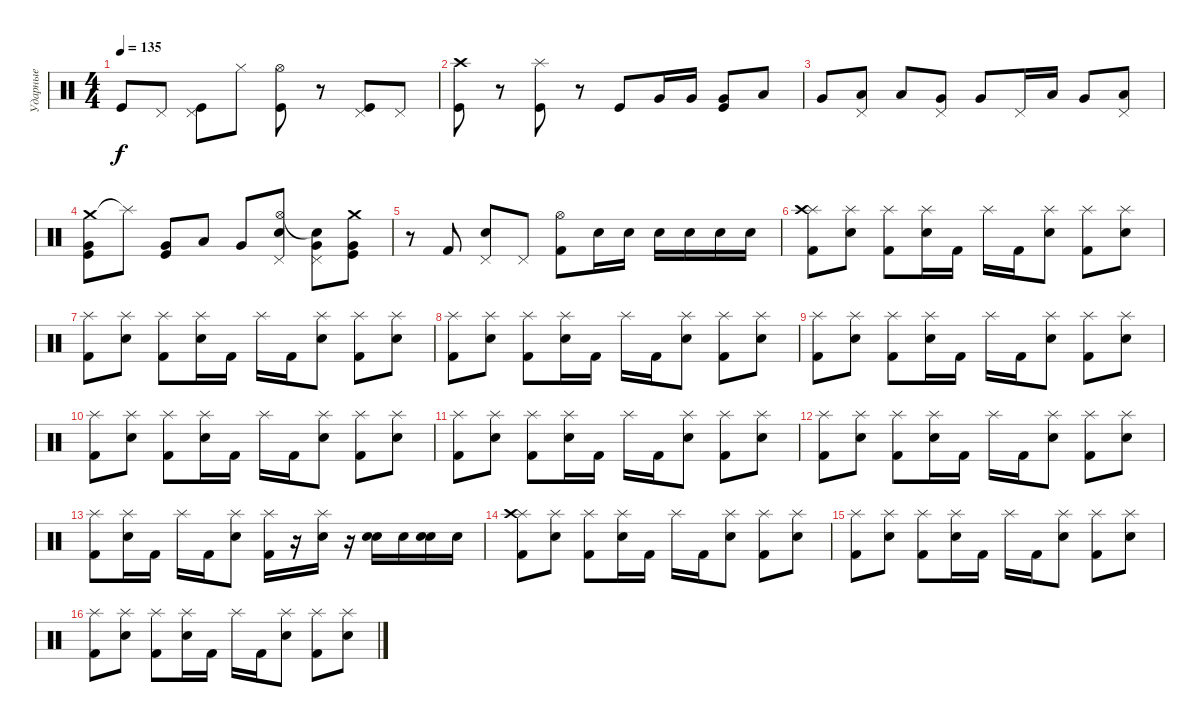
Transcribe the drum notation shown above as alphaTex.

\track ("Ударные" "Ударные") {instrument percussion}
\staff {score}
\articulation defaults
\ts (4 4)
\tempo 135
\clef neutral
\ks c "Kick (hit)".8{dy f} "Pedal Hi-Hat (hit)".8
("Pedal Hi-Hat (hit)" "Kick (hit)").8 "Hi-Hat (closed)".8 ("Hi-Hat (open)" "Kick (hit)").8 r.8 ("Pedal Hi-Hat (hit)" "Kick (hit)").8 "Pedal Hi-Hat (hit)".8 |
("Crash high (hit)" "Kick (hit)").8 r.8 ("Splash (hit)" "Kick (hit)").8 r.8 "Kick (hit)".8 "Very Low Tom (hit)".16 "Very Low Tom (hit)".16 ("Very Low Tom (hit)" "Kick (hit)").8 "Low Tom (hit)".8 |
"Very Low Tom (hit)".8 ("Pedal Hi-Hat (hit)" "Low Tom (hit)").8 "Low Tom (hit)".8 ("Pedal Hi-Hat (hit)" "Very Low Tom (hit)").8 "Very Low Tom (hit)".8 "Pedal Hi-Hat (hit)".16 "Low Tom (hit)".16 "Very Low Tom (hit)".8 ("Pedal Hi-Hat (hit)" "Low Floor Tom (hit)").8 |
("Crash medium (hit)" "Very Low Tom (hit)" "Kick (hit)").8 "Splash (hit)"{t}.8 ("Very Low Tom (hit)" "Kick (hit)").8 "Low Floor Tom (hit)".8 "Very Low Tom (hit)".8 ("Pedal Hi-Hat (hit)" "Electric Snare (hit)" "Hi-Hat (open)").8 ("Pedal Hi-Hat (hit)" "Very Low Tom (hit)" "Snare (hit)"{t}).8 ("Crash medium (hit)" "Very Low Tom (hit)" "Kick (hit)").8 |
r.8 "Kick (hit) 2".8 ("Pedal Hi-Hat (hit)" "Electric Snare (hit)").8 "Pedal Hi-Hat (hit)".8 ("Hi-Hat (open)" "Kick (hit) 2").8 "Electric Snare (hit)".16 "Electric Snare (hit)".16 "Electric Snare (hit)".16 "Electric Snare (hit)".16 "Electric Snare (hit)".16 "Electric Snare (hit)".16 |
("Splash (hit)" "Crash high (hit)" "Kick (hit) 2").8 ("Splash (hit)" "Electric Snare (hit)").8 ("Splash (hit)" "Kick (hit) 2").8 ("Splash (hit)" "Electric Snare (hit)").16 "Kick (hit) 2".16 "Splash (hit)".16 "Kick (hit) 2".16 ("Splash (hit)" "Electric Snare (hit)").8 ("Splash (hit)" "Kick (hit) 2").8 ("Splash (hit)" "Electric Snare (hit)").8 |
("Splash (hit)" "Kick (hit) 2").8 ("Splash (hit)" "Electric Snare (hit)").8 ("Splash (hit)" "Kick (hit) 2").8 ("Splash (hit)" "Electric Snare (hit)").16 "Kick (hit) 2".16 "Splash (hit)".16 "Kick (hit) 2".16 ("Splash (hit)" "Electric Snare (hit)").8 ("Splash (hit)" "Kick (hit) 2").8 ("Splash (hit)" "Electric Snare (hit)").8 |
("Splash (hit)" "Kick (hit) 2").8 ("Splash (hit)" "Electric Snare (hit)").8 ("Splash (hit)" "Kick (hit) 2").8 ("Splash (hit)" "Electric Snare (hit)").16 "Kick (hit) 2".16 "Splash (hit)".16 "Kick (hit) 2".16 ("Splash (hit)" "Electric Snare (hit)").8 ("Splash (hit)" "Kick (hit) 2").8 ("Splash (hit)" "Electric Snare (hit)").8 |
("Splash (hit)" "Kick (hit) 2").8 ("Splash (hit)" "Electric Snare (hit)").8 ("Splash (hit)" "Kick (hit) 2").8 ("Splash (hit)" "Electric Snare (hit)").16 "Kick (hit) 2".16 "Splash (hit)".16 "Kick (hit) 2".16 ("Splash (hit)" "Electric Snare (hit)").8 ("Splash (hit)" "Kick (hit) 2").8 ("Splash (hit)" "Electric Snare (hit)").8 |
("Splash (hit)" "Kick (hit) 2").8 ("Splash (hit)" "Electric Snare (hit)").8 ("Splash (hit)" "Kick (hit) 2").8 ("Splash (hit)" "Electric Snare (hit)").16 "Kick (hit) 2".16 "Splash (hit)".16 "Kick (hit) 2".16 ("Splash (hit)" "Electric Snare (hit)").8 ("Splash (hit)" "Kick (hit) 2").8 ("Splash (hit)" "Electric Snare (hit)").8 |
("Splash (hit)" "Kick (hit) 2").8 ("Splash (hit)" "Electric Snare (hit)").8 ("Splash (hit)" "Kick (hit) 2").8 ("Splash (hit)" "Electric Snare (hit)").16 "Kick (hit) 2".16 "Splash (hit)".16 "Kick (hit) 2".16 ("Splash (hit)" "Electric Snare (hit)").8 ("Splash (hit)" "Kick (hit) 2").8 ("Splash (hit)" "Electric Snare (hit)").8 |
("Splash (hit)" "Kick (hit) 2").8 ("Splash (hit)" "Electric Snare (hit)").8 ("Splash (hit)" "Kick (hit) 2").8 ("Splash (hit)" "Electric Snare (hit)").16 "Kick (hit) 2".16 "Splash (hit)".16 "Kick (hit) 2".16 ("Splash (hit)" "Electric Snare (hit)").8 ("Splash (hit)" "Kick (hit) 2").8 ("Splash (hit)" "Electric Snare (hit)").8 |
("Splash (hit)" "Kick (hit) 2").8 ("Splash (hit)" "Electric Snare (hit)").16 "Kick (hit) 2".16 "Splash (hit)".16 "Kick (hit) 2".16 ("Splash (hit)" "Electric Snare (hit)").8 ("Splash (hit)" "Kick (hit) 2").16 r.16 ("Splash (hit)" "Electric Snare (hit)").16 r.16 ("Snare (hit) 2" "Electric Snare (hit)").16 "Snare (hit) 2".16 ("Snare (hit) 2" "Electric Snare (hit)").16 "Snare (hit) 2".16 |
("Splash (hit)" "Crash high (hit)" "Kick (hit) 2").8 ("Splash (hit)" "Electric Snare (hit)").8 ("Splash (hit)" "Kick (hit) 2").8 ("Splash (hit)" "Electric Snare (hit)").16 "Kick (hit) 2".16 "Splash (hit)".16 "Kick (hit) 2".16 ("Splash (hit)" "Electric Snare (hit)").8 ("Splash (hit)" "Kick (hit) 2").8 ("Splash (hit)" "Electric Snare (hit)").8 |
("Splash (hit)" "Kick (hit) 2").8 ("Splash (hit)" "Electric Snare (hit)").8 ("Splash (hit)" "Kick (hit) 2").8 ("Splash (hit)" "Electric Snare (hit)").16 "Kick (hit) 2".16 "Splash (hit)".16 "Kick (hit) 2".16 ("Splash (hit)" "Electric Snare (hit)").8 ("Splash (hit)" "Kick (hit) 2").8 ("Splash (hit)" "Electric Snare (hit)").8 |
("Splash (hit)" "Kick (hit) 2").8 ("Splash (hit)" "Electric Snare (hit)").8 ("Splash (hit)" "Kick (hit) 2").8 ("Splash (hit)" "Electric Snare (hit)").16 "Kick (hit) 2".16 "Splash (hit)".16 "Kick (hit) 2".16 ("Splash (hit)" "Electric Snare (hit)").8 ("Splash (hit)" "Kick (hit) 2").8 ("Splash (hit)" "Electric Snare (hit)").8
